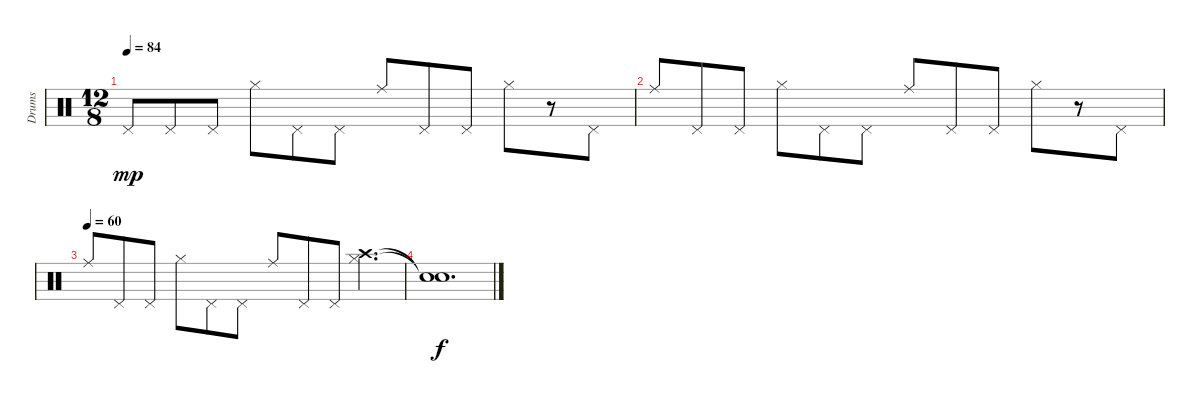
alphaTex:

\track ("Drums" "Drums") {instrument percussion}
\staff {score}
\articulation defaults
\ts (12 8)
\tempo 84
\clef neutral
\ks c "Pedal Hi-Hat (hit)".8{dy mp} "Pedal Hi-Hat (hit)".8 "Pedal Hi-Hat (hit)".8 "Hi-Hat (closed)".8 "Pedal Hi-Hat (hit)".8 "Pedal Hi-Hat (hit)".8 "Ride (middle)".8 "Pedal Hi-Hat (hit)".8 "Pedal Hi-Hat (hit)".8 "Hi-Hat (closed)".8
r.8 "Pedal Hi-Hat (hit)".8 |
"Ride (middle)".8 "Pedal Hi-Hat (hit)".8 "Pedal Hi-Hat (hit)".8 "Hi-Hat (closed)".8 "Pedal Hi-Hat (hit)".8 "Pedal Hi-Hat (hit)".8 "Ride (middle)".8 "Pedal Hi-Hat (hit)".8 "Pedal Hi-Hat (hit)".8 "Hi-Hat (closed)".8 r.8 "Pedal Hi-Hat (hit)".8 |
\tempo (60)
"Ride (middle)".8 "Pedal Hi-Hat (hit)".8 "Pedal Hi-Hat (hit)".8 "Hi-Hat (closed)".8 "Pedal Hi-Hat (hit)".8 "Pedal Hi-Hat (hit)".8 "Ride (middle)".8 "Pedal Hi-Hat (hit)".8 "Pedal Hi-Hat (hit)".8 ("Crash high (hit)" "Hi-Hat (closed)").4{d} |
("Snare (hit)"{t} "Snare (hit)"{t}).1{d dy f}
